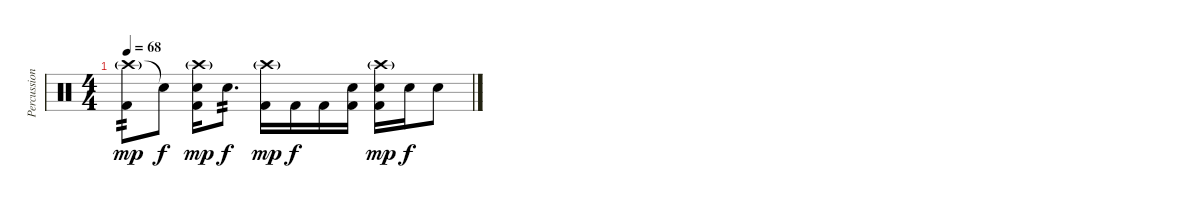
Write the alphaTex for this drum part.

\track ("Percussions" "Percussion") {instrument percussion}
\staff {score}
\articulation defaults
\ts (4 4)
\tempo 68
\clef neutral
\ks c
("Crash high (hit)"{g} "Kick (hit) 2").8{tp 2 dy mp} "Snare (hit)"{t}.8{dy f} ("Crash high (hit)"{g} "Snare (hit) 2" "Kick (hit) 2").16{dy mp} "Snare (hit) 2".8{d tp 2 dy f} ("Crash high (hit)"{g} "Kick (hit) 2").16{dy mp} "Kick (hit) 2".16{dy f} "Kick (hit) 2".16 ("Snare (hit) 2" "Kick (hit) 2").16 ("Crash high (hit)"{g} "Snare (hit) 2" "Kick (hit) 2").16{dy mp} "Snare (hit) 2".16{dy f} "Snare (hit) 2".8
